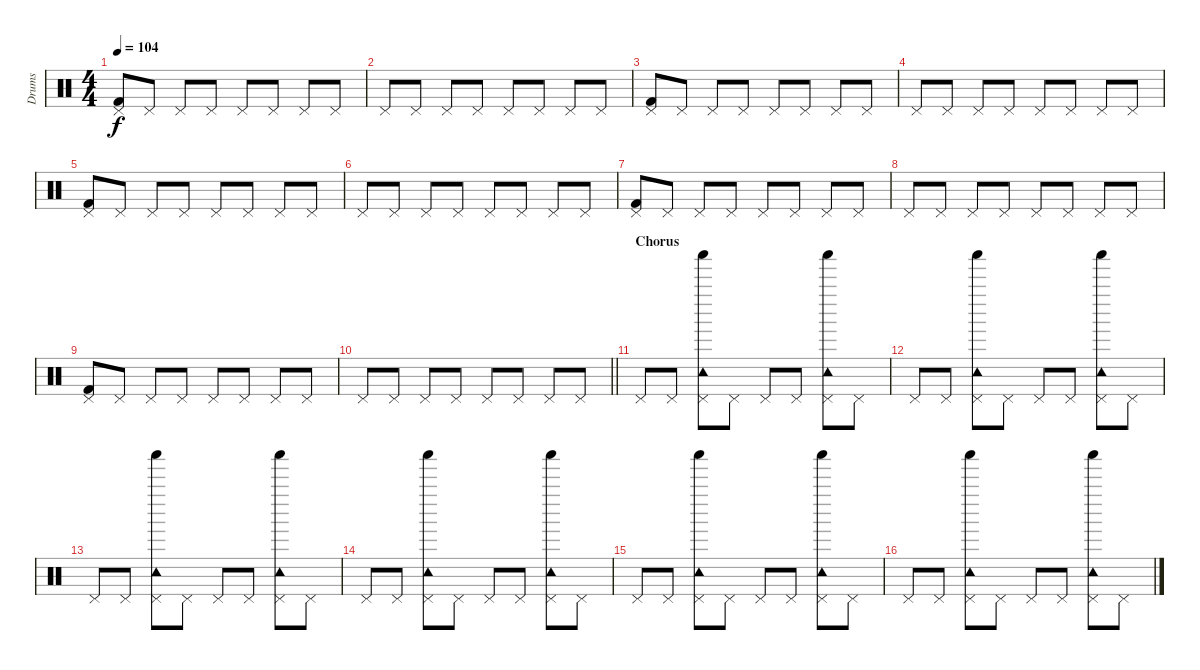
\track ("Drums" "Drums") {instrument percussion}
\staff {score}
\articulation defaults
\ts (4 4)
\tempo 104
\clef neutral
\ks c
("Pedal Hi-Hat (hit)" "Kick (hit) 2").8{dy f} "Pedal Hi-Hat (hit)".8 "Pedal Hi-Hat (hit)".8 "Pedal Hi-Hat (hit)".8 "Pedal Hi-Hat (hit)".8 "Pedal Hi-Hat (hit)".8 "Pedal Hi-Hat (hit)".8 "Pedal Hi-Hat (hit)".8 |
"Pedal Hi-Hat (hit)".8 "Pedal Hi-Hat (hit)".8 "Pedal Hi-Hat (hit)".8 "Pedal Hi-Hat (hit)".8 "Pedal Hi-Hat (hit)".8 "Pedal Hi-Hat (hit)".8 "Pedal Hi-Hat (hit)".8 "Pedal Hi-Hat (hit)".8 |
("Pedal Hi-Hat (hit)" "Kick (hit) 2").8 "Pedal Hi-Hat (hit)".8 "Pedal Hi-Hat (hit)".8 "Pedal Hi-Hat (hit)".8 "Pedal Hi-Hat (hit)".8 "Pedal Hi-Hat (hit)".8 "Pedal Hi-Hat (hit)".8 "Pedal Hi-Hat (hit)".8 |
"Pedal Hi-Hat (hit)".8 "Pedal Hi-Hat (hit)".8 "Pedal Hi-Hat (hit)".8 "Pedal Hi-Hat (hit)".8 "Pedal Hi-Hat (hit)".8 "Pedal Hi-Hat (hit)".8 "Pedal Hi-Hat (hit)".8 "Pedal Hi-Hat (hit)".8 |
("Pedal Hi-Hat (hit)" "Kick (hit) 2").8 "Pedal Hi-Hat (hit)".8 "Pedal Hi-Hat (hit)".8 "Pedal Hi-Hat (hit)".8 "Pedal Hi-Hat (hit)".8 "Pedal Hi-Hat (hit)".8 "Pedal Hi-Hat (hit)".8 "Pedal Hi-Hat (hit)".8 |
"Pedal Hi-Hat (hit)".8 "Pedal Hi-Hat (hit)".8 "Pedal Hi-Hat (hit)".8 "Pedal Hi-Hat (hit)".8 "Pedal Hi-Hat (hit)".8 "Pedal Hi-Hat (hit)".8 "Pedal Hi-Hat (hit)".8 "Pedal Hi-Hat (hit)".8 |
("Pedal Hi-Hat (hit)" "Kick (hit) 2").8 "Pedal Hi-Hat (hit)".8 "Pedal Hi-Hat (hit)".8 "Pedal Hi-Hat (hit)".8 "Pedal Hi-Hat (hit)".8 "Pedal Hi-Hat (hit)".8 "Pedal Hi-Hat (hit)".8 "Pedal Hi-Hat (hit)".8 |
"Pedal Hi-Hat (hit)".8 "Pedal Hi-Hat (hit)".8 "Pedal Hi-Hat (hit)".8 "Pedal Hi-Hat (hit)".8 "Pedal Hi-Hat (hit)".8 "Pedal Hi-Hat (hit)".8 "Pedal Hi-Hat (hit)".8 "Pedal Hi-Hat (hit)".8 |
("Pedal Hi-Hat (hit)" "Kick (hit) 2").8 "Pedal Hi-Hat (hit)".8 "Pedal Hi-Hat (hit)".8 "Pedal Hi-Hat (hit)".8 "Pedal Hi-Hat (hit)".8 "Pedal Hi-Hat (hit)".8 "Pedal Hi-Hat (hit)".8 "Pedal Hi-Hat (hit)".8 |
\barLineRight lightlight "Pedal Hi-Hat (hit)".8 "Pedal Hi-Hat (hit)".8 "Pedal Hi-Hat (hit)".8 "Pedal Hi-Hat (hit)".8 "Pedal Hi-Hat (hit)".8 "Pedal Hi-Hat (hit)".8 "Pedal Hi-Hat (hit)".8 "Pedal Hi-Hat (hit)".8
|
\section ("" "Chorus")
"Pedal Hi-Hat (hit)".8{volume 11} "Pedal Hi-Hat (hit)".8 ("Pedal Hi-Hat (hit)" "Tambourine (hit)" "Shaker (hit)").8 "Pedal Hi-Hat (hit)".8 "Pedal Hi-Hat (hit)".8 "Pedal Hi-Hat (hit)".8 ("Pedal Hi-Hat (hit)" "Tambourine (hit)" "Shaker (hit)").8 "Pedal Hi-Hat (hit)".8 |
"Pedal Hi-Hat (hit)".8 "Pedal Hi-Hat (hit)".8 ("Pedal Hi-Hat (hit)" "Tambourine (hit)" "Shaker (hit)").8 "Pedal Hi-Hat (hit)".8 "Pedal Hi-Hat (hit)".8 "Pedal Hi-Hat (hit)".8 ("Pedal Hi-Hat (hit)" "Tambourine (hit)" "Shaker (hit)").8 "Pedal Hi-Hat (hit)".8 |
"Pedal Hi-Hat (hit)".8 "Pedal Hi-Hat (hit)".8 ("Pedal Hi-Hat (hit)" "Tambourine (hit)" "Shaker (hit)").8 "Pedal Hi-Hat (hit)".8 "Pedal Hi-Hat (hit)".8 "Pedal Hi-Hat (hit)".8 ("Pedal Hi-Hat (hit)" "Tambourine (hit)" "Shaker (hit)").8 "Pedal Hi-Hat (hit)".8 |
"Pedal Hi-Hat (hit)".8 "Pedal Hi-Hat (hit)".8 ("Pedal Hi-Hat (hit)" "Tambourine (hit)" "Shaker (hit)").8 "Pedal Hi-Hat (hit)".8 "Pedal Hi-Hat (hit)".8 "Pedal Hi-Hat (hit)".8 ("Pedal Hi-Hat (hit)" "Tambourine (hit)" "Shaker (hit)").8 "Pedal Hi-Hat (hit)".8 |
"Pedal Hi-Hat (hit)".8 "Pedal Hi-Hat (hit)".8 ("Pedal Hi-Hat (hit)" "Tambourine (hit)" "Shaker (hit)").8 "Pedal Hi-Hat (hit)".8 "Pedal Hi-Hat (hit)".8 "Pedal Hi-Hat (hit)".8 ("Pedal Hi-Hat (hit)" "Tambourine (hit)" "Shaker (hit)").8 "Pedal Hi-Hat (hit)".8 |
"Pedal Hi-Hat (hit)".8 "Pedal Hi-Hat (hit)".8 ("Pedal Hi-Hat (hit)" "Tambourine (hit)" "Shaker (hit)").8 "Pedal Hi-Hat (hit)".8 "Pedal Hi-Hat (hit)".8 "Pedal Hi-Hat (hit)".8 ("Pedal Hi-Hat (hit)" "Tambourine (hit)" "Shaker (hit)").8 "Pedal Hi-Hat (hit)".8
